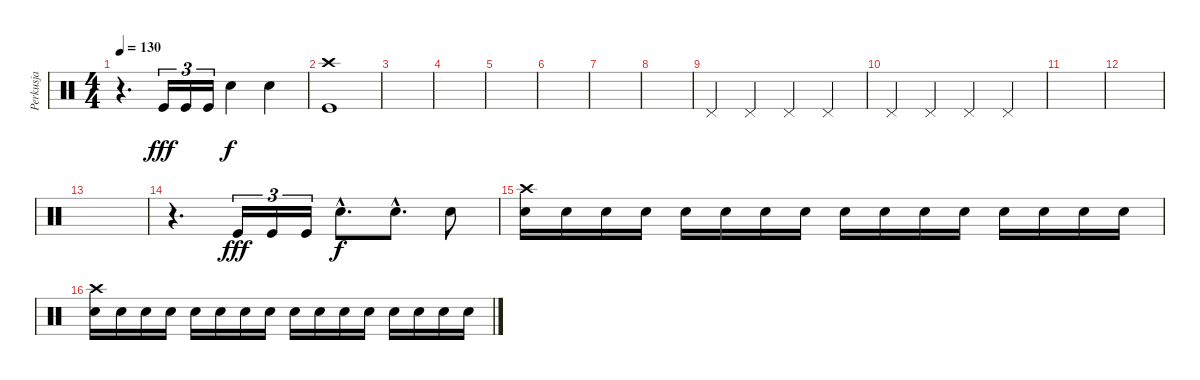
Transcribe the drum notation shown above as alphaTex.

\track ("Perkusja" "Perkusja") {instrument percussion}
\staff {score}
\articulation defaults
\ts (4 4)
\tempo 130
\clef neutral
\ks c
r.4{d dy fff} "Kick (hit)".16{tu (3 2)} "Kick (hit)".16{tu (3 2)} "Kick (hit)".16{tu (3 2)} "Snare (hit) 2".4{dy f} "Snare (hit) 2".4 |
("Crash high (hit)" "Kick (hit)").1 |
|
|
|
|
|
|
"Pedal Hi-Hat (hit)".4 "Pedal Hi-Hat (hit)".4 "Pedal Hi-Hat (hit)".4 "Pedal Hi-Hat (hit)".4 |
"Pedal Hi-Hat (hit)".4 "Pedal Hi-Hat (hit)".4 "Pedal Hi-Hat (hit)".4 "Pedal Hi-Hat (hit)".4 |
|
|
|
r.4{d} "Kick (hit)".16{tu (3 2) dy fff} "Kick (hit)".16{tu (3 2)} "Kick (hit)".16{tu (3 2)} "Snare (hit) 2"{hac}.8{d dy f} "Snare (hit) 2"{hac}.8{d} "Snare (hit) 2".8 |
("Crash high (hit)" "Snare (hit) 2").16 "Snare (hit) 2".16 "Snare (hit) 2".16 "Snare (hit) 2".16 "Snare (hit) 2".16 "Snare (hit) 2".16 "Snare (hit) 2".16 "Snare (hit) 2".16 "Snare (hit) 2".16 "Snare (hit) 2".16 "Snare (hit) 2".16 "Snare (hit) 2".16 "Snare (hit) 2".16 "Snare (hit) 2".16 "Snare (hit) 2".16 "Snare (hit) 2".16 |
("Crash high (hit)" "Snare (hit) 2").16 "Snare (hit) 2".16 "Snare (hit) 2".16 "Snare (hit) 2".16 "Snare (hit) 2".16 "Snare (hit) 2".16 "Snare (hit) 2".16 "Snare (hit) 2".16 "Snare (hit) 2".16 "Snare (hit) 2".16 "Snare (hit) 2".16 "Snare (hit) 2".16 "Snare (hit) 2".16 "Snare (hit) 2".16 "Snare (hit) 2".16 "Snare (hit) 2".16
